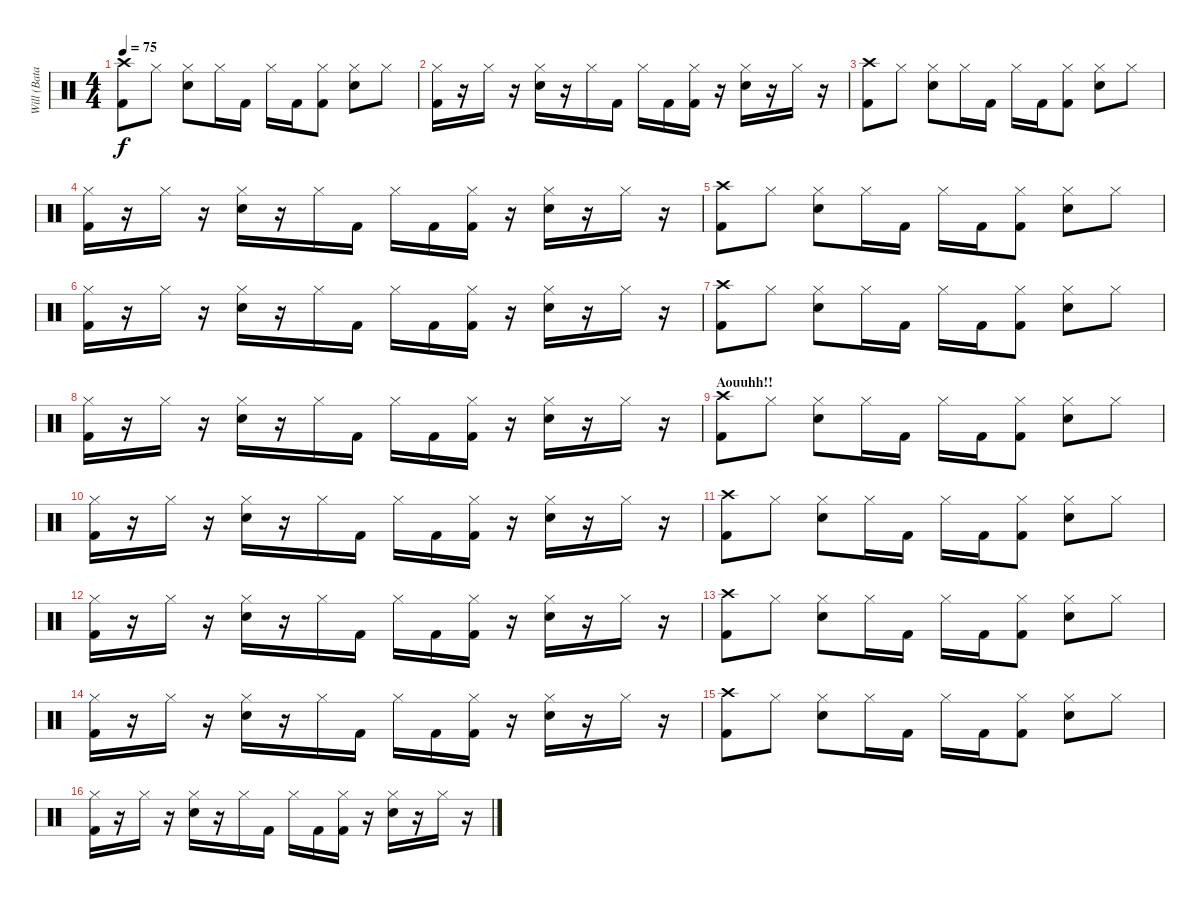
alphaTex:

\track ("Will (Bataca)" "Will (Bata") {instrument percussion}
\staff {score}
\articulation defaults
\ts (4 4)
\tempo 75
\clef neutral
\ks c
("Crash high (hit)" "Kick (hit) 2").8{dy f} "Hi-Hat (closed)".8 ("Hi-Hat (closed)" "Snare (hit) 2").8 "Hi-Hat (closed)".16 "Kick (hit) 2".16 "Hi-Hat (closed)".16 "Kick (hit) 2".16 ("Hi-Hat (closed)" "Kick (hit) 2").8 ("Hi-Hat (closed)" "Snare (hit) 2").8 "Hi-Hat (closed)".8 |
("Hi-Hat (closed)" "Kick (hit) 2").16 r.16 "Hi-Hat (closed)".16 r.16 ("Hi-Hat (closed)" "Snare (hit) 2").16 r.16 "Hi-Hat (closed)".16 "Kick (hit) 2".16 "Hi-Hat (closed)".16 "Kick (hit) 2".16 ("Hi-Hat (closed)" "Kick (hit) 2").16 r.16 ("Hi-Hat (closed)" "Snare (hit) 2").16 r.16 "Hi-Hat (closed)".16 r.16 |
("Crash high (hit)" "Kick (hit) 2").8 "Hi-Hat (closed)".8 ("Hi-Hat (closed)" "Snare (hit) 2").8 "Hi-Hat (closed)".16 "Kick (hit) 2".16 "Hi-Hat (closed)".16 "Kick (hit) 2".16 ("Hi-Hat (closed)" "Kick (hit) 2").8 ("Hi-Hat (closed)" "Snare (hit) 2").8 "Hi-Hat (closed)".8 |
("Hi-Hat (closed)" "Kick (hit) 2").16 r.16 "Hi-Hat (closed)".16 r.16 ("Hi-Hat (closed)" "Snare (hit) 2").16 r.16 "Hi-Hat (closed)".16 "Kick (hit) 2".16 "Hi-Hat (closed)".16 "Kick (hit) 2".16 ("Hi-Hat (closed)" "Kick (hit) 2").16 r.16 ("Hi-Hat (closed)" "Snare (hit) 2").16 r.16 "Hi-Hat (closed)".16 r.16 |
("Crash high (hit)" "Kick (hit) 2").8 "Hi-Hat (closed)".8 ("Hi-Hat (closed)" "Snare (hit) 2").8 "Hi-Hat (closed)".16 "Kick (hit) 2".16 "Hi-Hat (closed)".16 "Kick (hit) 2".16 ("Hi-Hat (closed)" "Kick (hit) 2").8 ("Hi-Hat (closed)" "Snare (hit) 2").8 "Hi-Hat (closed)".8 |
("Hi-Hat (closed)" "Kick (hit) 2").16 r.16 "Hi-Hat (closed)".16 r.16 ("Hi-Hat (closed)" "Snare (hit) 2").16 r.16 "Hi-Hat (closed)".16 "Kick (hit) 2".16 "Hi-Hat (closed)".16 "Kick (hit) 2".16 ("Hi-Hat (closed)" "Kick (hit) 2").16 r.16 ("Hi-Hat (closed)" "Snare (hit) 2").16 r.16 "Hi-Hat (closed)".16 r.16 |
("Crash high (hit)" "Kick (hit) 2").8 "Hi-Hat (closed)".8 ("Hi-Hat (closed)" "Snare (hit) 2").8 "Hi-Hat (closed)".16 "Kick (hit) 2".16 "Hi-Hat (closed)".16 "Kick (hit) 2".16 ("Hi-Hat (closed)" "Kick (hit) 2").8 ("Hi-Hat (closed)" "Snare (hit) 2").8 "Hi-Hat (closed)".8 |
("Hi-Hat (closed)" "Kick (hit) 2").16 r.16 "Hi-Hat (closed)".16 r.16 ("Hi-Hat (closed)" "Snare (hit) 2").16 r.16 "Hi-Hat (closed)".16 "Kick (hit) 2".16 "Hi-Hat (closed)".16 "Kick (hit) 2".16 ("Hi-Hat (closed)" "Kick (hit) 2").16 r.16 ("Hi-Hat (closed)" "Snare (hit) 2").16 r.16 "Hi-Hat (closed)".16 r.16 |
\section ("" "Aouuhh!!")
("Crash high (hit)" "Kick (hit) 2").8 "Hi-Hat (closed)".8 ("Hi-Hat (closed)" "Snare (hit) 2").8 "Hi-Hat (closed)".16 "Kick (hit) 2".16 "Hi-Hat (closed)".16 "Kick (hit) 2".16 ("Hi-Hat (closed)" "Kick (hit) 2").8 ("Hi-Hat (closed)" "Snare (hit) 2").8 "Hi-Hat (closed)".8 |
("Hi-Hat (closed)" "Kick (hit) 2").16 r.16 "Hi-Hat (closed)".16 r.16 ("Hi-Hat (closed)" "Snare (hit) 2").16 r.16 "Hi-Hat (closed)".16 "Kick (hit) 2".16 "Hi-Hat (closed)".16 "Kick (hit) 2".16 ("Hi-Hat (closed)" "Kick (hit) 2").16 r.16 ("Hi-Hat (closed)" "Snare (hit) 2").16 r.16 "Hi-Hat (closed)".16 r.16 |
("Crash high (hit)" "Kick (hit) 2").8 "Hi-Hat (closed)".8 ("Hi-Hat (closed)" "Snare (hit) 2").8 "Hi-Hat (closed)".16 "Kick (hit) 2".16 "Hi-Hat (closed)".16 "Kick (hit) 2".16 ("Hi-Hat (closed)" "Kick (hit) 2").8 ("Hi-Hat (closed)" "Snare (hit) 2").8 "Hi-Hat (closed)".8 |
("Hi-Hat (closed)" "Kick (hit) 2").16 r.16 "Hi-Hat (closed)".16 r.16 ("Hi-Hat (closed)" "Snare (hit) 2").16 r.16 "Hi-Hat (closed)".16 "Kick (hit) 2".16 "Hi-Hat (closed)".16 "Kick (hit) 2".16 ("Hi-Hat (closed)" "Kick (hit) 2").16 r.16 ("Hi-Hat (closed)" "Snare (hit) 2").16 r.16 "Hi-Hat (closed)".16 r.16 |
("Crash high (hit)" "Kick (hit) 2").8 "Hi-Hat (closed)".8 ("Hi-Hat (closed)" "Snare (hit) 2").8 "Hi-Hat (closed)".16 "Kick (hit) 2".16 "Hi-Hat (closed)".16 "Kick (hit) 2".16 ("Hi-Hat (closed)" "Kick (hit) 2").8 ("Hi-Hat (closed)" "Snare (hit) 2").8 "Hi-Hat (closed)".8 |
("Hi-Hat (closed)" "Kick (hit) 2").16 r.16 "Hi-Hat (closed)".16 r.16 ("Hi-Hat (closed)" "Snare (hit) 2").16 r.16 "Hi-Hat (closed)".16 "Kick (hit) 2".16 "Hi-Hat (closed)".16 "Kick (hit) 2".16 ("Hi-Hat (closed)" "Kick (hit) 2").16 r.16 ("Hi-Hat (closed)" "Snare (hit) 2").16 r.16 "Hi-Hat (closed)".16 r.16 |
("Crash high (hit)" "Kick (hit) 2").8 "Hi-Hat (closed)".8 ("Hi-Hat (closed)" "Snare (hit) 2").8 "Hi-Hat (closed)".16 "Kick (hit) 2".16 "Hi-Hat (closed)".16 "Kick (hit) 2".16 ("Hi-Hat (closed)" "Kick (hit) 2").8 ("Hi-Hat (closed)" "Snare (hit) 2").8 "Hi-Hat (closed)".8 |
("Hi-Hat (closed)" "Kick (hit) 2").16 r.16 "Hi-Hat (closed)".16 r.16 ("Hi-Hat (closed)" "Snare (hit) 2").16 r.16 "Hi-Hat (closed)".16 "Kick (hit) 2".16 "Hi-Hat (closed)".16 "Kick (hit) 2".16 ("Hi-Hat (closed)" "Kick (hit) 2").16 r.16 ("Hi-Hat (closed)" "Snare (hit) 2").16 r.16 "Hi-Hat (closed)".16 r.16
